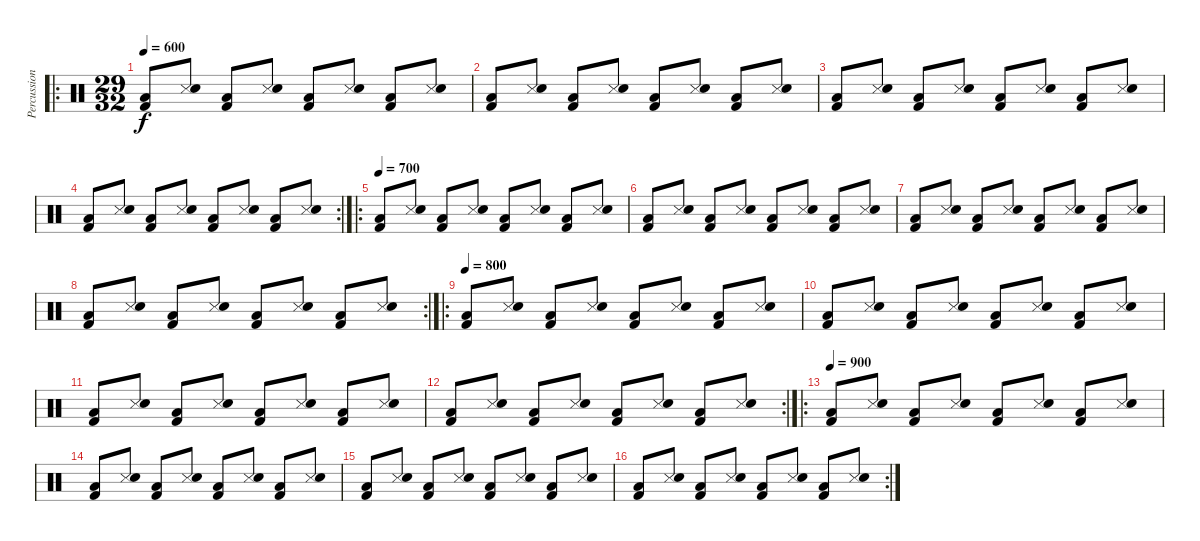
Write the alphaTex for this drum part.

\track ("Percussion" "Percussion") {instrument percussion}
\staff {score}
\articulation defaults
\ro
\ts (29 32)
\tempo 600
\clef neutral
\ks c
("Low Tom (hit)" "Kick (hit) 2").8{dy f} ("Snare (side stick) 3" "Electric Snare (hit)").8 ("Low Tom (hit)" "Kick (hit) 2").8 ("Snare (side stick) 3" "Electric Snare (hit)").8 ("Low Tom (hit)" "Kick (hit) 2").8 ("Snare (side stick) 3" "Electric Snare (hit)").8 ("Low Tom (hit)" "Kick (hit) 2").8 ("Snare (side stick) 3" "Electric Snare (hit)").8 |
("Low Tom (hit)" "Kick (hit) 2").8 ("Snare (side stick) 3" "Electric Snare (hit)").8 ("Low Tom (hit)" "Kick (hit) 2").8 ("Snare (side stick) 3" "Electric Snare (hit)").8 ("Low Tom (hit)" "Kick (hit) 2").8 ("Snare (side stick) 3" "Electric Snare (hit)").8 ("Low Tom (hit)" "Kick (hit) 2").8 ("Snare (side stick) 3" "Electric Snare (hit)").8 |
("Low Tom (hit)" "Kick (hit) 2").8 ("Snare (side stick) 3" "Electric Snare (hit)").8 ("Low Tom (hit)" "Kick (hit) 2").8 ("Snare (side stick) 3" "Electric Snare (hit)").8 ("Low Tom (hit)" "Kick (hit) 2").8 ("Snare (side stick) 3" "Electric Snare (hit)").8 ("Low Tom (hit)" "Kick (hit) 2").8 ("Snare (side stick) 3" "Electric Snare (hit)").8 |
\rc 2
("Low Tom (hit)" "Kick (hit) 2").8 ("Snare (side stick) 3" "Electric Snare (hit)").8 ("Low Tom (hit)" "Kick (hit) 2").8 ("Snare (side stick) 3" "Electric Snare (hit)").8 ("Low Tom (hit)" "Kick (hit) 2").8 ("Snare (side stick) 3" "Electric Snare (hit)").8 ("Low Tom (hit)" "Kick (hit) 2").8 ("Snare (side stick) 3" "Electric Snare (hit)").8 |
\ro
\tempo 700
("Low Tom (hit)" "Kick (hit) 2").8 ("Snare (side stick) 3" "Electric Snare (hit)").8 ("Low Tom (hit)" "Kick (hit) 2").8 ("Snare (side stick) 3" "Electric Snare (hit)").8 ("Low Tom (hit)" "Kick (hit) 2").8 ("Snare (side stick) 3" "Electric Snare (hit)").8 ("Low Tom (hit)" "Kick (hit) 2").8 ("Snare (side stick) 3" "Electric Snare (hit)").8 |
("Low Tom (hit)" "Kick (hit) 2").8 ("Snare (side stick) 3" "Electric Snare (hit)").8 ("Low Tom (hit)" "Kick (hit) 2").8 ("Snare (side stick) 3" "Electric Snare (hit)").8 ("Low Tom (hit)" "Kick (hit) 2").8 ("Snare (side stick) 3" "Electric Snare (hit)").8 ("Low Tom (hit)" "Kick (hit) 2").8 ("Snare (side stick) 3" "Electric Snare (hit)").8 |
("Low Tom (hit)" "Kick (hit) 2").8 ("Snare (side stick) 3" "Electric Snare (hit)").8 ("Low Tom (hit)" "Kick (hit) 2").8 ("Snare (side stick) 3" "Electric Snare (hit)").8 ("Low Tom (hit)" "Kick (hit) 2").8 ("Snare (side stick) 3" "Electric Snare (hit)").8 ("Low Tom (hit)" "Kick (hit) 2").8 ("Snare (side stick) 3" "Electric Snare (hit)").8 |
\rc 2
("Low Tom (hit)" "Kick (hit) 2").8 ("Snare (side stick) 3" "Electric Snare (hit)").8 ("Low Tom (hit)" "Kick (hit) 2").8 ("Snare (side stick) 3" "Electric Snare (hit)").8 ("Low Tom (hit)" "Kick (hit) 2").8 ("Snare (side stick) 3" "Electric Snare (hit)").8 ("Low Tom (hit)" "Kick (hit) 2").8 ("Snare (side stick) 3" "Electric Snare (hit)").8 |
\ro
\tempo 800
("Low Tom (hit)" "Kick (hit) 2").8 ("Snare (side stick) 3" "Electric Snare (hit)").8 ("Low Tom (hit)" "Kick (hit) 2").8 ("Snare (side stick) 3" "Electric Snare (hit)").8 ("Low Tom (hit)" "Kick (hit) 2").8 ("Snare (side stick) 3" "Electric Snare (hit)").8 ("Low Tom (hit)" "Kick (hit) 2").8 ("Snare (side stick) 3" "Electric Snare (hit)").8 |
("Low Tom (hit)" "Kick (hit) 2").8 ("Snare (side stick) 3" "Electric Snare (hit)").8 ("Low Tom (hit)" "Kick (hit) 2").8 ("Snare (side stick) 3" "Electric Snare (hit)").8 ("Low Tom (hit)" "Kick (hit) 2").8 ("Snare (side stick) 3" "Electric Snare (hit)").8 ("Low Tom (hit)" "Kick (hit) 2").8 ("Snare (side stick) 3" "Electric Snare (hit)").8 |
("Low Tom (hit)" "Kick (hit) 2").8 ("Snare (side stick) 3" "Electric Snare (hit)").8 ("Low Tom (hit)" "Kick (hit) 2").8 ("Snare (side stick) 3" "Electric Snare (hit)").8 ("Low Tom (hit)" "Kick (hit) 2").8 ("Snare (side stick) 3" "Electric Snare (hit)").8 ("Low Tom (hit)" "Kick (hit) 2").8 ("Snare (side stick) 3" "Electric Snare (hit)").8 |
\rc 2
("Low Tom (hit)" "Kick (hit) 2").8 ("Snare (side stick) 3" "Electric Snare (hit)").8 ("Low Tom (hit)" "Kick (hit) 2").8 ("Snare (side stick) 3" "Electric Snare (hit)").8 ("Low Tom (hit)" "Kick (hit) 2").8 ("Snare (side stick) 3" "Electric Snare (hit)").8 ("Low Tom (hit)" "Kick (hit) 2").8 ("Snare (side stick) 3" "Electric Snare (hit)").8 |
\ro
\tempo 900
("Low Tom (hit)" "Kick (hit) 2").8 ("Snare (side stick) 3" "Electric Snare (hit)").8 ("Low Tom (hit)" "Kick (hit) 2").8 ("Snare (side stick) 3" "Electric Snare (hit)").8 ("Low Tom (hit)" "Kick (hit) 2").8 ("Snare (side stick) 3" "Electric Snare (hit)").8 ("Low Tom (hit)" "Kick (hit) 2").8 ("Snare (side stick) 3" "Electric Snare (hit)").8 |
("Low Tom (hit)" "Kick (hit) 2").8 ("Snare (side stick) 3" "Electric Snare (hit)").8 ("Low Tom (hit)" "Kick (hit) 2").8 ("Snare (side stick) 3" "Electric Snare (hit)").8 ("Low Tom (hit)" "Kick (hit) 2").8 ("Snare (side stick) 3" "Electric Snare (hit)").8 ("Low Tom (hit)" "Kick (hit) 2").8 ("Snare (side stick) 3" "Electric Snare (hit)").8 |
("Low Tom (hit)" "Kick (hit) 2").8 ("Snare (side stick) 3" "Electric Snare (hit)").8 ("Low Tom (hit)" "Kick (hit) 2").8 ("Snare (side stick) 3" "Electric Snare (hit)").8 ("Low Tom (hit)" "Kick (hit) 2").8 ("Snare (side stick) 3" "Electric Snare (hit)").8 ("Low Tom (hit)" "Kick (hit) 2").8 ("Snare (side stick) 3" "Electric Snare (hit)").8 |
\rc 2
("Low Tom (hit)" "Kick (hit) 2").8 ("Snare (side stick) 3" "Electric Snare (hit)").8 ("Low Tom (hit)" "Kick (hit) 2").8 ("Snare (side stick) 3" "Electric Snare (hit)").8 ("Low Tom (hit)" "Kick (hit) 2").8 ("Snare (side stick) 3" "Electric Snare (hit)").8 ("Low Tom (hit)" "Kick (hit) 2").8 ("Snare (side stick) 3" "Electric Snare (hit)").8
